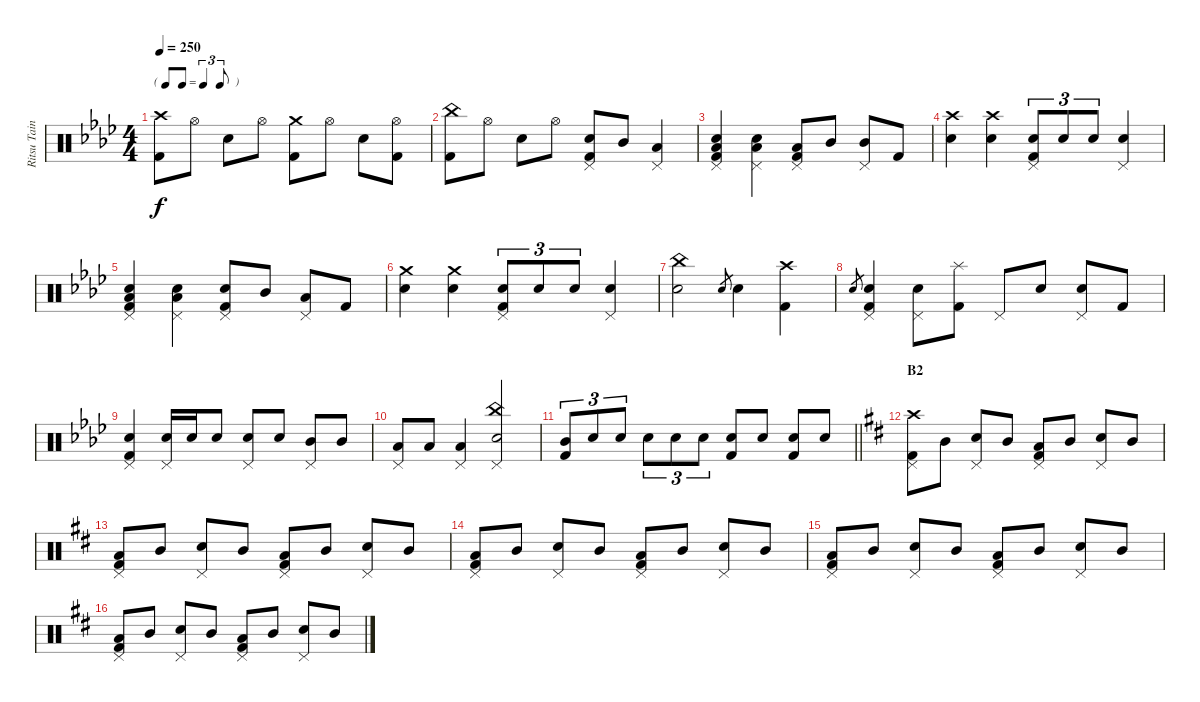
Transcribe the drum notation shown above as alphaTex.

\track ("Ritsu Tainaka" "Ritsu Tain") {instrument percussion}
\staff {score}
\articulation defaults
\ts (4 4)
\tf triplet8th
\tempo 250
\clef neutral
\ks ab
("Crash high (hit)" "Kick (hit) 2").8{dy f} "Hi-Hat (open)".8 "Electric Snare (hit)".8 "Hi-Hat (open)".8 ("Crash medium (hit)" "Kick (hit) 2").8 "Hi-Hat (open)".8 "Electric Snare (hit)".8 ("Hi-Hat (open)" "Kick (hit) 2").8 |
("China (hit)" "Kick (hit) 2").8 "Hi-Hat (open)".8 "Electric Snare (hit)".8 "Hi-Hat (open)".8 ("Pedal Hi-Hat (hit)" "Electric Snare (hit)" "Kick (hit) 2").8 "Mid Tom (hit)".8 ("Pedal Hi-Hat (hit)" "Low Floor Tom (hit)").4 |
("Pedal Hi-Hat (hit)" "Electric Snare (hit)" "Low Floor Tom (hit)" "Kick (hit) 2").4 ("Pedal Hi-Hat (hit)" "Electric Snare (hit)" "Low Floor Tom (hit)").4 ("Pedal Hi-Hat (hit)" "Low Floor Tom (hit)" "Kick (hit) 2").8 "Mid Tom (hit)".8 ("Pedal Hi-Hat (hit)" "Mid Tom (hit)").8 "Kick (hit) 2".8 |
("Crash high (hit)" "Electric Snare (hit)").4 ("Crash high (hit)" "Electric Snare (hit)").4 ("Pedal Hi-Hat (hit)" "Electric Snare (hit)" "Kick (hit) 2").8{tu (3 2)} "Electric Snare (hit)".8{tu (3 2)} "Electric Snare (hit)".8{tu (3 2)} ("Pedal Hi-Hat (hit)" "Electric Snare (hit)").4 |
("Pedal Hi-Hat (hit)" "Electric Snare (hit)" "Low Floor Tom (hit)" "Kick (hit) 2").4 ("Pedal Hi-Hat (hit)" "Electric Snare (hit)" "Low Floor Tom (hit)").4 ("Pedal Hi-Hat (hit)" "Electric Snare (hit)" "Kick (hit) 2").8 "Mid Tom (hit)".8 ("Pedal Hi-Hat (hit)" "Low Floor Tom (hit)").8 "Kick (hit) 2".8 |
("Crash medium (hit)" "Electric Snare (hit)").4 ("Crash medium (hit)" "Electric Snare (hit)").4 ("Pedal Hi-Hat (hit)" "Electric Snare (hit)" "Kick (hit) 2").8{tu (3 2)} "Electric Snare (hit)".8{tu (3 2)} "Electric Snare (hit)".8{tu (3 2)} ("Pedal Hi-Hat (hit)" "Electric Snare (hit)").4 |
("China (hit)" "Electric Snare (hit)").2 "Electric Snare (hit)".8{gr} "Electric Snare (hit)".4 ("Crash high (hit)" "Kick (hit) 2").4 |
"Electric Snare (hit)".8{gr} ("Pedal Hi-Hat (hit)" "Electric Snare (hit)" "Kick (hit) 2").4 ("Pedal Hi-Hat (hit)" "Electric Snare (hit)").8 ("Splash (hit)" "Kick (hit) 2").8 "Pedal Hi-Hat (hit)".8 "Electric Snare (hit)".8 ("Pedal Hi-Hat (hit)" "Electric Snare (hit)").8 "Kick (hit) 2".8 |
("Pedal Hi-Hat (hit)" "Electric Snare (hit)" "Kick (hit) 2").4 ("Pedal Hi-Hat (hit)" "Electric Snare (hit)").16 "Electric Snare (hit)".16 "Electric Snare (hit)".8 ("Pedal Hi-Hat (hit)" "Electric Snare (hit)").8 "Electric Snare (hit)".8 ("Pedal Hi-Hat (hit)" "Mid Tom (hit)").8 "Mid Tom (hit)".8 |
("Pedal Hi-Hat (hit)" "Low Tom (hit)").8 "Low Tom (hit)".8 ("Pedal Hi-Hat (hit)" "Low Tom (hit)").4 ("China (hit)" "Pedal Hi-Hat (hit)" "Electric Snare (hit)").2 |
\barLineRight lightlight
("Mid Tom (hit)" "Kick (hit) 2").8{tu (3 2)} "Electric Snare (hit)".8{tu (3 2)} "Electric Snare (hit)".8{tu (3 2)} "Electric Snare (hit)".8{tu (3 2)} "Electric Snare (hit)".8{tu (3 2)} "Electric Snare (hit)".8{tu (3 2)} ("Electric Snare (hit)" "Kick (hit) 2").8 "Electric Snare (hit)".8 ("Electric Snare (hit)" "Kick (hit) 2").8 "Electric Snare (hit)".8 |
\section ("" "B2")
\ks d
("Crash high (hit)" "Pedal Hi-Hat (hit)" "Kick (hit) 2").8 "Mid Tom (hit)".8 ("Pedal Hi-Hat (hit)" "Electric Snare (hit)").8 "Mid Tom (hit)".8 ("Pedal Hi-Hat (hit)" "Low Floor Tom (hit)" "Kick (hit) 2").8 "Mid Tom (hit)".8 ("Pedal Hi-Hat (hit)" "Electric Snare (hit)").8 "Mid Tom (hit)".8 |
("Pedal Hi-Hat (hit)" "Low Floor Tom (hit)" "Kick (hit) 2").8 "Mid Tom (hit)".8 ("Pedal Hi-Hat (hit)" "Electric Snare (hit)").8 "Mid Tom (hit)".8 ("Pedal Hi-Hat (hit)" "Low Floor Tom (hit)" "Kick (hit) 2").8 "Mid Tom (hit)".8 ("Pedal Hi-Hat (hit)" "Electric Snare (hit)").8 "Mid Tom (hit)".8 |
("Pedal Hi-Hat (hit)" "Low Floor Tom (hit)" "Kick (hit) 2").8 "Mid Tom (hit)".8 ("Pedal Hi-Hat (hit)" "Electric Snare (hit)").8 "Mid Tom (hit)".8 ("Pedal Hi-Hat (hit)" "Low Floor Tom (hit)" "Kick (hit) 2").8 "Mid Tom (hit)".8 ("Pedal Hi-Hat (hit)" "Electric Snare (hit)").8 "Mid Tom (hit)".8 |
("Pedal Hi-Hat (hit)" "Low Floor Tom (hit)" "Kick (hit) 2").8 "Mid Tom (hit)".8 ("Pedal Hi-Hat (hit)" "Electric Snare (hit)").8 "Mid Tom (hit)".8 ("Pedal Hi-Hat (hit)" "Low Floor Tom (hit)" "Kick (hit) 2").8 "Mid Tom (hit)".8 ("Pedal Hi-Hat (hit)" "Electric Snare (hit)").8 "Mid Tom (hit)".8 |
("Pedal Hi-Hat (hit)" "Low Floor Tom (hit)" "Kick (hit) 2").8 "Mid Tom (hit)".8 ("Pedal Hi-Hat (hit)" "Electric Snare (hit)").8 "Mid Tom (hit)".8 ("Pedal Hi-Hat (hit)" "Low Floor Tom (hit)" "Kick (hit) 2").8 "Mid Tom (hit)".8 ("Pedal Hi-Hat (hit)" "Electric Snare (hit)").8 "Mid Tom (hit)".8
